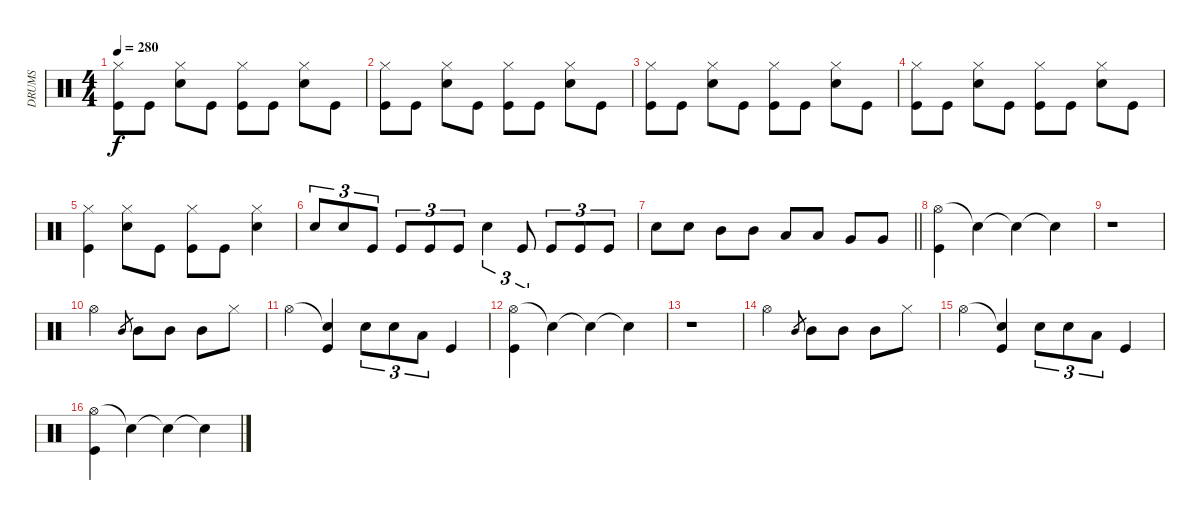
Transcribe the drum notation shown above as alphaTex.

\track ("DRUMS" "DRUMS") {instrument percussion}
\staff {score}
\articulation defaults
\ts (4 4)
\tempo 280
\clef neutral
\ks aminor
("Hi-Hat (closed)" "Kick (hit)").8{dy f} "Kick (hit)".8 ("Hi-Hat (closed)" "Snare (hit) 2").8 "Kick (hit)".8 ("Hi-Hat (closed)" "Kick (hit)").8 "Kick (hit)".8 ("Hi-Hat (closed)" "Snare (hit) 2").8 "Kick (hit)".8 |
("Hi-Hat (closed)" "Kick (hit)").8 "Kick (hit)".8 ("Hi-Hat (closed)" "Snare (hit) 2").8 "Kick (hit)".8 ("Hi-Hat (closed)" "Kick (hit)").8 "Kick (hit)".8 ("Hi-Hat (closed)" "Snare (hit) 2").8 "Kick (hit)".8 |
("Hi-Hat (closed)" "Kick (hit)").8 "Kick (hit)".8 ("Hi-Hat (closed)" "Snare (hit) 2").8 "Kick (hit)".8 ("Hi-Hat (closed)" "Kick (hit)").8 "Kick (hit)".8 ("Hi-Hat (closed)" "Snare (hit) 2").8 "Kick (hit)".8 |
("Hi-Hat (closed)" "Kick (hit)").8 "Kick (hit)".8 ("Hi-Hat (closed)" "Snare (hit) 2").8 "Kick (hit)".8 ("Hi-Hat (closed)" "Kick (hit)").8 "Kick (hit)".8 ("Hi-Hat (closed)" "Snare (hit) 2").8 "Kick (hit)".8 |
("Hi-Hat (closed)" "Kick (hit)").4 ("Hi-Hat (closed)" "Snare (hit) 2").8 "Kick (hit)".8 ("Hi-Hat (closed)" "Kick (hit)").8 "Kick (hit)".8 ("Hi-Hat (closed)" "Snare (hit) 2").4 |
"Snare (hit) 2".8{tu (3 2)} "Snare (hit) 2".8{tu (3 2)} "Kick (hit)".8{tu (3 2)} "Kick (hit)".8{tu (3 2)} "Kick (hit)".8{tu (3 2)} "Kick (hit)".8{tu (3 2)} "Snare (hit) 2".4{tu (3 2)} "Kick (hit)".8{tu (3 2)} "Kick (hit)".8{tu (3 2)} "Kick (hit)".8{tu (3 2)} "Kick (hit)".8{tu (3 2)} |
\barLineRight lightlight "Snare (hit) 2".8 "Snare (hit) 2".8 "Mid Tom (hit)".8 "Mid Tom (hit)".8 "Low Tom (hit)".8 "Low Tom (hit)".8 "Very Low Tom (hit)".8 "Very Low Tom (hit)".8
|
("Hi-Hat (open)" "Kick (hit)").4 "Snare (hit)"{t}.4 "Snare (hit)"{t}.4 "Snare (hit)"{t}.4 |
r.1 |
"Hi-Hat (open)".2 "Mid Tom (hit)".8{gr} "Mid Tom (hit)".8 "Mid Tom (hit)".8 "Mid Tom (hit)".8 "Hi-Hat (closed)".8 |
"Hi-Hat (open)".4 ("Snare (hit)"{t} "Kick (hit)").4 "Snare (hit) 2".8{tu (3 2)} "Snare (hit) 2".8{tu (3 2)} "Low Tom (hit)".8{tu (3 2)} "Kick (hit)".4 |
("Hi-Hat (open)" "Kick (hit)").4 "Snare (hit)"{t}.4 "Snare (hit)"{t}.4 "Snare (hit)"{t}.4 |
r.1 |
"Hi-Hat (open)".2 "Mid Tom (hit)".8{gr} "Mid Tom (hit)".8 "Mid Tom (hit)".8 "Mid Tom (hit)".8 "Hi-Hat (closed)".8 |
"Hi-Hat (open)".4 ("Snare (hit)"{t} "Kick (hit)").4 "Snare (hit) 2".8{tu (3 2)} "Snare (hit) 2".8{tu (3 2)} "Low Tom (hit)".8{tu (3 2)} "Kick (hit)".4 |
("Hi-Hat (open)" "Kick (hit)").4 "Snare (hit)"{t}.4 "Snare (hit)"{t}.4 "Snare (hit)"{t}.4
